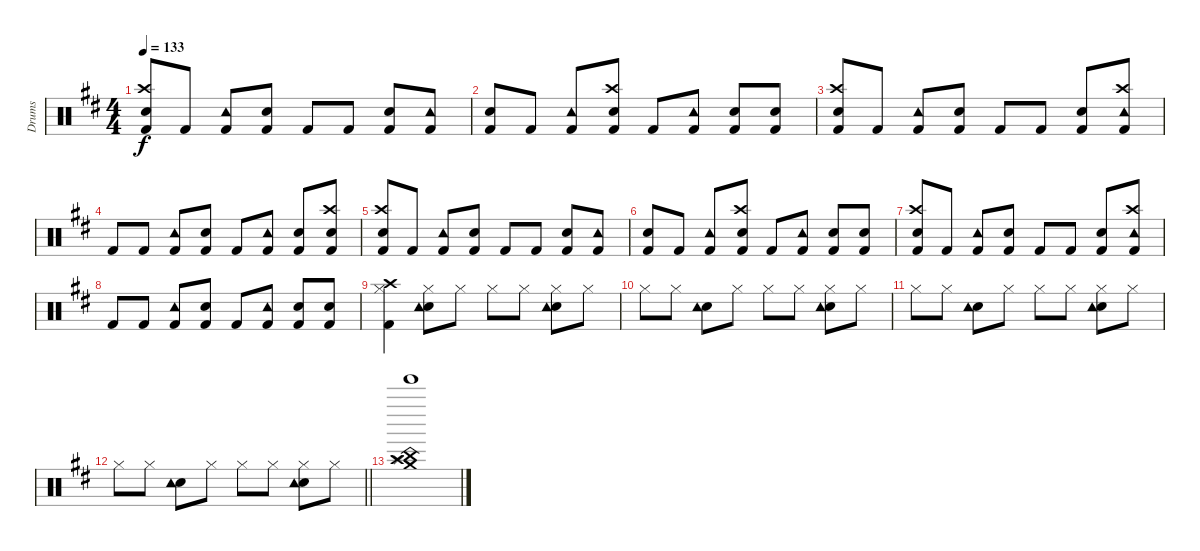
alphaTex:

\track ("Drums" "Drums") {instrument percussion}
\staff {score}
\articulation defaults
\ts (4 4)
\tempo 133
\clef neutral
\ks d
("Kick (hit) 2" "Crash high (hit)" "Snare (hit) 2").8{dy f} "Kick (hit) 2".8 ("Kick (hit) 2" "Tambourine (hit)").8 ("Kick (hit) 2" "Snare (hit) 2").8 "Kick (hit) 2".8 "Kick (hit) 2".8 ("Kick (hit) 2" "Snare (hit) 2").8 ("Kick (hit) 2" "Tambourine (hit)").8 |
("Kick (hit) 2" "Snare (hit) 2").8 "Kick (hit) 2".8 ("Kick (hit) 2" "Tambourine (hit)").8 ("Kick (hit) 2" "Snare (hit) 2" "Crash high (hit)").8 "Kick (hit) 2".8 ("Kick (hit) 2" "Tambourine (hit)").8 ("Kick (hit) 2" "Snare (hit) 2").8 ("Kick (hit) 2" "Snare (hit) 2").8 |
("Kick (hit) 2" "Crash high (hit)" "Snare (hit) 2").8 "Kick (hit) 2".8 ("Kick (hit) 2" "Tambourine (hit)").8 ("Kick (hit) 2" "Snare (hit) 2").8 "Kick (hit) 2".8 "Kick (hit) 2".8 ("Kick (hit) 2" "Snare (hit) 2").8 ("Kick (hit) 2" "Tambourine (hit)" "Crash high (hit)").8 |
"Kick (hit) 2".8 "Kick (hit) 2".8 ("Kick (hit) 2" "Tambourine (hit)").8 ("Kick (hit) 2" "Snare (hit) 2").8 "Kick (hit) 2".8 ("Kick (hit) 2" "Tambourine (hit)").8 ("Kick (hit) 2" "Snare (hit) 2").8 ("Kick (hit) 2" "Snare (hit) 2" "Crash high (hit)").8 |
("Kick (hit) 2" "Crash high (hit)" "Snare (hit) 2").8 "Kick (hit) 2".8 ("Kick (hit) 2" "Tambourine (hit)").8 ("Kick (hit) 2" "Snare (hit) 2").8 "Kick (hit) 2".8 "Kick (hit) 2".8 ("Kick (hit) 2" "Snare (hit) 2").8 ("Kick (hit) 2" "Tambourine (hit)").8 |
("Kick (hit) 2" "Snare (hit) 2").8 "Kick (hit) 2".8 ("Kick (hit) 2" "Tambourine (hit)").8 ("Kick (hit) 2" "Snare (hit) 2" "Crash high (hit)").8 "Kick (hit) 2".8 ("Kick (hit) 2" "Tambourine (hit)").8 ("Kick (hit) 2" "Snare (hit) 2").8 ("Kick (hit) 2" "Snare (hit) 2").8 |
("Kick (hit) 2" "Crash high (hit)" "Snare (hit) 2").8 "Kick (hit) 2".8 ("Kick (hit) 2" "Tambourine (hit)").8 ("Kick (hit) 2" "Snare (hit) 2").8 "Kick (hit) 2".8 "Kick (hit) 2".8 ("Kick (hit) 2" "Snare (hit) 2").8 ("Kick (hit) 2" "Tambourine (hit)" "Crash high (hit)").8 |
"Kick (hit) 2".8 "Kick (hit) 2".8 ("Kick (hit) 2" "Tambourine (hit)").8 ("Kick (hit) 2" "Snare (hit) 2").8 "Kick (hit) 2".8 ("Kick (hit) 2" "Tambourine (hit)").8 ("Kick (hit) 2" "Snare (hit) 2").8 ("Kick (hit) 2" "Snare (hit) 2").8 |
("Hi-Hat (closed)" "Kick (hit) 2" "Crash high (hit)").4 ("Snare (hit) 2" "Tambourine (hit)" "Hi-Hat (closed)").8 "Hi-Hat (closed)".8 "Hi-Hat (closed)".8 "Hi-Hat (closed)".8 ("Snare (hit) 2" "Tambourine (hit)" "Hi-Hat (closed)").8 "Hi-Hat (closed)".8 |
"Hi-Hat (closed)".8 "Hi-Hat (closed)".8 ("Snare (hit) 2" "Tambourine (hit)").8 "Hi-Hat (closed)".8 "Hi-Hat (closed)".8 "Hi-Hat (closed)".8 ("Snare (hit) 2" "Tambourine (hit)" "Hi-Hat (closed)").8 "Hi-Hat (closed)".8 |
"Hi-Hat (closed)".8 "Hi-Hat (closed)".8 ("Snare (hit) 2" "Tambourine (hit)").8 "Hi-Hat (closed)".8 "Hi-Hat (closed)".8 "Hi-Hat (closed)".8 ("Snare (hit) 2" "Tambourine (hit)" "Hi-Hat (closed)").8 "Hi-Hat (closed)".8 |
\barLineRight lightlight "Hi-Hat (closed)".8 "Hi-Hat (closed)".8
("Snare (hit) 2" "Tambourine (hit)").8 "Hi-Hat (closed)".8 "Hi-Hat (closed)".8 "Hi-Hat (closed)".8 ("Snare (hit) 2" "Tambourine (hit)" "Hi-Hat (closed)").8 "Hi-Hat (closed)".8 |
("Splash (hit)" "Crash high (hit)" "Tinkle Bell (hit)" "Crash medium (hit)" "China (hit)").1
